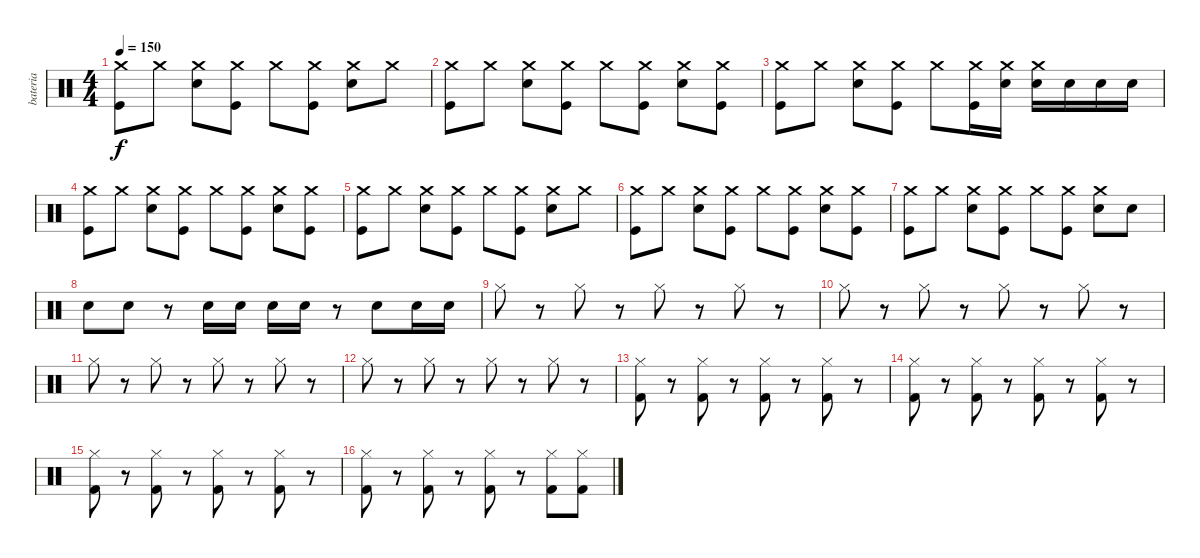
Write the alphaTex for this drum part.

\track ("bateria" "bateria") {instrument percussion}
\staff {score}
\articulation defaults
\ts (4 4)
\tempo 150
\clef neutral
\ks c
("Crash medium (hit)" "Kick (hit)").8{dy f} "Crash medium (hit)".8 ("Crash medium (hit)" "Electric Snare (hit)").8 ("Crash medium (hit)" "Kick (hit)").8 "Crash medium (hit)".8 ("Crash medium (hit)" "Kick (hit)").8 ("Crash medium (hit)" "Electric Snare (hit)").8 "Crash medium (hit)".8 |
("Crash medium (hit)" "Kick (hit)").8 "Crash medium (hit)".8 ("Crash medium (hit)" "Electric Snare (hit)").8 ("Crash medium (hit)" "Kick (hit)").8 "Crash medium (hit)".8 ("Crash medium (hit)" "Kick (hit)").8 ("Crash medium (hit)" "Electric Snare (hit)").8 ("Crash medium (hit)" "Kick (hit)").8 |
("Crash medium (hit)" "Kick (hit)").8 "Crash medium (hit)".8 ("Crash medium (hit)" "Electric Snare (hit)").8 ("Crash medium (hit)" "Kick (hit)").8 "Crash medium (hit)".8 ("Crash medium (hit)" "Kick (hit)").16 ("Crash medium (hit)" "Electric Snare (hit)").16 ("Crash medium (hit)" "Electric Snare (hit)").16 "Electric Snare (hit)".16 "Electric Snare (hit)".16 "Electric Snare (hit)".16 |
("Crash medium (hit)" "Kick (hit)").8 "Crash medium (hit)".8 ("Crash medium (hit)" "Electric Snare (hit)").8 ("Crash medium (hit)" "Kick (hit)").8 "Crash medium (hit)".8 ("Crash medium (hit)" "Kick (hit)").8 ("Crash medium (hit)" "Electric Snare (hit)").8 ("Crash medium (hit)" "Kick (hit)").8 |
("Crash medium (hit)" "Kick (hit)").8 "Crash medium (hit)".8 ("Crash medium (hit)" "Electric Snare (hit)").8 ("Crash medium (hit)" "Kick (hit)").8 "Crash medium (hit)".8 ("Crash medium (hit)" "Kick (hit)").8 ("Crash medium (hit)" "Electric Snare (hit)").8 "Crash medium (hit)".8 |
("Crash medium (hit)" "Kick (hit)").8 "Crash medium (hit)".8 ("Crash medium (hit)" "Electric Snare (hit)").8 ("Crash medium (hit)" "Kick (hit)").8 "Crash medium (hit)".8 ("Crash medium (hit)" "Kick (hit)").8 ("Crash medium (hit)" "Electric Snare (hit)").8 ("Crash medium (hit)" "Kick (hit)").8 |
("Crash medium (hit)" "Kick (hit)").8 "Crash medium (hit)".8 ("Crash medium (hit)" "Electric Snare (hit)").8 ("Crash medium (hit)" "Kick (hit)").8 "Crash medium (hit)".8 ("Crash medium (hit)" "Kick (hit)").8 ("Crash medium (hit)" "Electric Snare (hit)").8 "Electric Snare (hit)".8 |
"Electric Snare (hit)".8 "Electric Snare (hit)".8 r.8 "Electric Snare (hit)".16 "Electric Snare (hit)".16 "Electric Snare (hit)".16 "Electric Snare (hit)".16 r.8 "Electric Snare (hit)".8 "Electric Snare (hit)".16 "Electric Snare (hit)".16 |
"Hi-Hat (closed)".8 r.8 "Hi-Hat (closed)".8 r.8 "Hi-Hat (closed)".8 r.8 "Hi-Hat (closed)".8 r.8 |
"Hi-Hat (closed)".8 r.8 "Hi-Hat (closed)".8 r.8 "Hi-Hat (closed)".8 r.8 "Hi-Hat (closed)".8 r.8 |
"Hi-Hat (closed)".8 r.8 "Hi-Hat (closed)".8 r.8 "Hi-Hat (closed)".8 r.8 "Hi-Hat (closed)".8 r.8 |
"Hi-Hat (closed)".8 r.8 "Hi-Hat (closed)".8 r.8 "Hi-Hat (closed)".8 r.8 "Hi-Hat (closed)".8 r.8 |
("Hi-Hat (closed)" "Kick (hit) 2").8 r.8 ("Hi-Hat (closed)" "Kick (hit) 2").8 r.8 ("Hi-Hat (closed)" "Kick (hit) 2").8 r.8 ("Hi-Hat (closed)" "Kick (hit) 2").8 r.8 |
("Hi-Hat (closed)" "Kick (hit) 2").8 r.8 ("Hi-Hat (closed)" "Kick (hit) 2").8 r.8 ("Hi-Hat (closed)" "Kick (hit) 2").8 r.8 ("Hi-Hat (closed)" "Kick (hit) 2").8 r.8 |
("Hi-Hat (closed)" "Kick (hit) 2").8 r.8 ("Hi-Hat (closed)" "Kick (hit) 2").8 r.8 ("Hi-Hat (closed)" "Kick (hit) 2").8 r.8 ("Hi-Hat (closed)" "Kick (hit) 2").8 r.8 |
("Hi-Hat (closed)" "Kick (hit) 2").8 r.8 ("Hi-Hat (closed)" "Kick (hit) 2").8 r.8 ("Hi-Hat (closed)" "Kick (hit) 2").8 r.8 ("Hi-Hat (closed)" "Kick (hit) 2").8 ("Hi-Hat (closed)" "Kick (hit) 2").8
